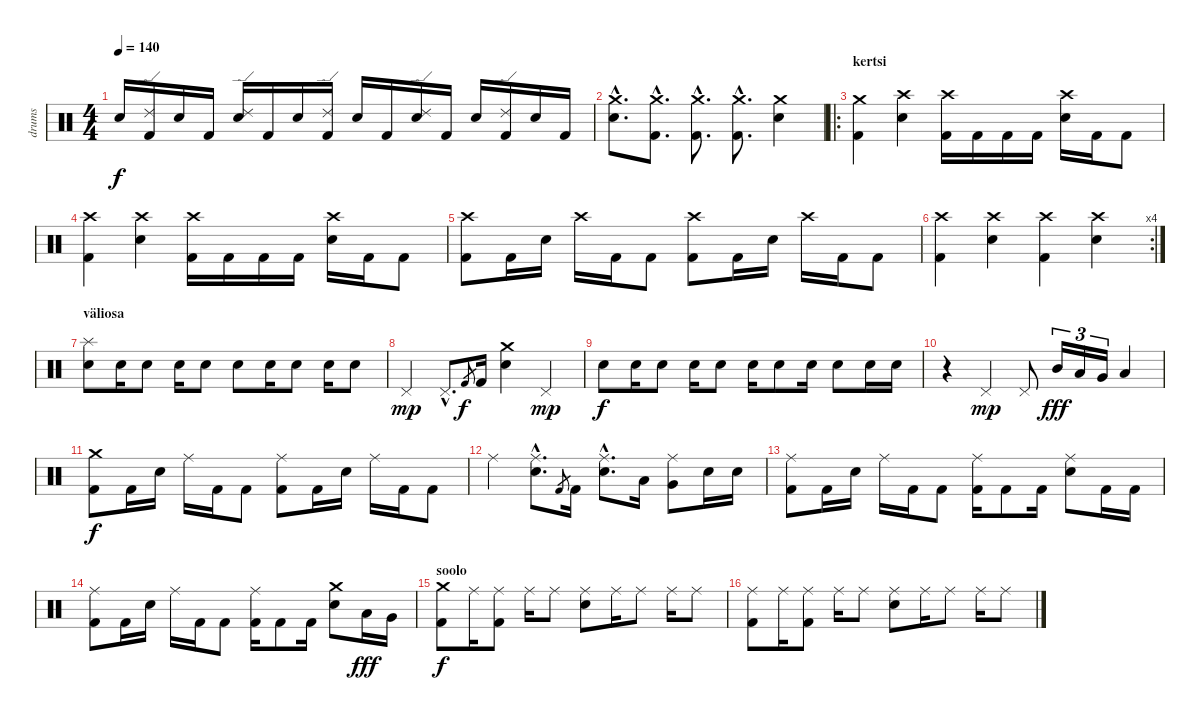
\track ("drums" "drums") {instrument percussion}
\staff {score}
\articulation defaults
\ts (4 4)
\tempo 140
\clef neutral
\ks c "Snare (hit) 2".16{dy f}
("Kick (hit) 2" "Ride (edge) 2").16 "Snare (hit) 2".16 "Kick (hit) 2".16 ("Ride (edge) 2" "Snare (hit) 2").16 "Kick (hit) 2".16 "Snare (hit) 2".16 ("Kick (hit) 2" "Ride (edge) 2").16 "Snare (hit) 2".16 "Kick (hit) 2".16 ("Ride (edge) 2" "Snare (hit) 2").16 "Kick (hit) 2".16 "Snare (hit) 2".16 ("Kick (hit) 2" "Ride (edge) 2").16 "Snare (hit) 2".16 "Kick (hit) 2".16 |
("Crash medium (hit)"{hac} "Snare (hit) 2"{hac}).8{d} ("Kick (hit) 2"{hac} "Crash medium (hit)"{hac}).8{d} ("Kick (hit) 2"{hac} "Crash medium (hit)"{hac}).8{d} ("Kick (hit) 2"{hac} "Crash medium (hit)"{hac}).8{d} ("Crash medium (hit)" "Snare (hit) 2").4 |
\ro
\section ("" "kertsi")
("Kick (hit) 2" "Crash medium (hit)").4 ("Crash high (hit)" "Snare (hit) 2").4 ("Kick (hit) 2" "Crash high (hit)").16 "Kick (hit) 2".16 "Kick (hit) 2".16 "Kick (hit) 2".16 ("Crash high (hit)" "Snare (hit) 2").16 "Kick (hit) 2".16 "Kick (hit) 2".8 |
("Kick (hit) 2" "Crash high (hit)").4 ("Crash high (hit)" "Snare (hit) 2").4 ("Kick (hit) 2" "Crash high (hit)").16 "Kick (hit) 2".16 "Kick (hit) 2".16 "Kick (hit) 2".16 ("Crash high (hit)" "Snare (hit) 2").16 "Kick (hit) 2".16 "Kick (hit) 2".8 |
("Kick (hit) 2" "Crash high (hit)").8 "Kick (hit) 2".16 "Snare (hit) 2".16 "Crash high (hit)".16 "Kick (hit) 2".16 "Kick (hit) 2".8 ("Kick (hit) 2" "Crash high (hit)").8 "Kick (hit) 2".16 "Snare (hit) 2".16 "Crash high (hit)".16 "Kick (hit) 2".16 "Kick (hit) 2".8 |
\rc 4
("Kick (hit) 2" "Crash high (hit)").4 ("Crash high (hit)" "Snare (hit) 2").4 ("Kick (hit) 2" "Crash high (hit)").4 ("Crash high (hit)" "Snare (hit) 2").4 |
\section ("" "väliosa")
("Splash (hit)" "Snare (hit) 2").8 "Snare (hit) 2".16 "Snare (hit) 2".8 "Snare (hit) 2".16 "Snare (hit) 2".8 "Snare (hit) 2".8 "Snare (hit) 2".16 "Snare (hit) 2".8 "Snare (hit) 2".16 "Snare (hit) 2".8 |
"Pedal Hi-Hat (hit)".4{dy mp} "Pedal Hi-Hat (hit)"{hac}.8{d} "Kick (hit) 2".8{gr dy f} "Kick (hit) 2".16 ("Crash medium (hit)" "Snare (hit) 2").4 "Pedal Hi-Hat (hit)".4{dy mp} |
"Snare (hit) 2".8{dy f} "Snare (hit) 2".16 "Snare (hit) 2".8 "Snare (hit) 2".16 "Snare (hit) 2".8 "Snare (hit) 2".16 "Snare (hit) 2".8 "Snare (hit) 2".16 "Snare (hit) 2".8 "Snare (hit) 2".16 "Snare (hit) 2".16 |
r.4 "Pedal Hi-Hat (hit)".4{dy mp} "Pedal Hi-Hat (hit)".8 "Mid Tom (hit)".16{tu (3 2) dy fff} "Low Tom (hit)".16{tu (3 2)} "Very Low Tom (hit)".16{tu (3 2)} "Low Floor Tom (hit)".4 |
("Kick (hit) 2" "Crash medium (hit)").8{dy f} "Kick (hit) 2".16 "Snare (hit) 2".16 "Ride (middle)".16 "Kick (hit) 2".16 "Kick (hit) 2".8 ("Kick (hit) 2" "Ride (middle)").8 "Kick (hit) 2".16 "Snare (hit) 2".16 "Ride (middle)".16 "Kick (hit) 2".16 "Kick (hit) 2".8 |
"Ride (middle)".4 ("Ride (middle)"{hac} "Snare (hit) 2"{hac}).8{d} "Kick (hit) 2".8{gr} "Kick (hit) 2".16 ("Ride (middle)"{hac} "Snare (hit) 2"{hac}).8{d} "Low Tom (hit)".16 ("Very Low Tom (hit)" "Ride (middle)").8 "Snare (hit) 2".16 "Snare (hit) 2".16 |
("Kick (hit) 2" "Ride (middle)").8 "Kick (hit) 2".16 "Snare (hit) 2".16 "Ride (middle)".16 "Kick (hit) 2".16 "Kick (hit) 2".8 ("Kick (hit) 2" "Ride (middle)").16 "Kick (hit) 2".8 "Kick (hit) 2".16 ("Ride (middle)" "Snare (hit) 2").8 "Kick (hit) 2".16 "Kick (hit) 2".16 |
("Kick (hit) 2" "Ride (middle)").8 "Kick (hit) 2".16 "Snare (hit) 2".16 "Ride (middle)".16 "Kick (hit) 2".16 "Kick (hit) 2".8 ("Kick (hit) 2" "Ride (middle)").16 "Kick (hit) 2".8 "Kick (hit) 2".16 ("Crash medium (hit)" "Snare (hit) 2").8 "Low Tom (hit)".16{dy fff} "Very Low Tom (hit)".16 |
\section ("" "soolo")
("Kick (hit) 2" "Crash medium (hit)").8{dy f} "Ride (middle)".16 ("Kick (hit) 2" "Ride (middle)").8 "Ride (middle)".16 "Ride (middle)".8 ("Ride (middle)" "Snare (hit) 2").8 "Ride (middle)".16 "Ride (middle)".8 "Ride (middle)".16 "Ride (middle)".8 |
("Kick (hit) 2" "Ride (middle)").8 "Ride (middle)".16 ("Kick (hit) 2" "Ride (middle)").8 "Ride (middle)".16 "Ride (middle)".8 ("Ride (middle)" "Snare (hit) 2").8 "Ride (middle)".16 "Ride (middle)".8 "Ride (middle)".16 "Ride (middle)".8
